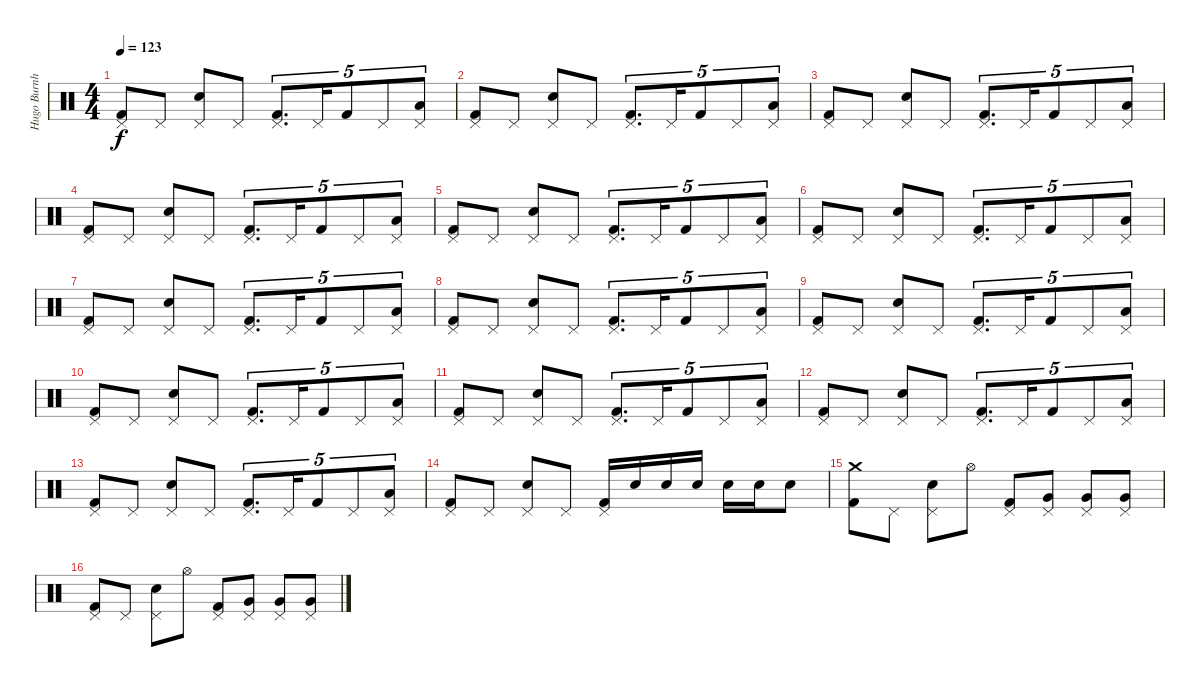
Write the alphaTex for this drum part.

\track ("Hugo Burnham" "Hugo Burnh") {instrument percussion}
\staff {score}
\articulation defaults
\ts (4 4)
\tempo 123
\clef neutral
\ks c
("Pedal Hi-Hat (hit)" "Kick (hit) 2").8{dy f} "Pedal Hi-Hat (hit)".8 ("Pedal Hi-Hat (hit)" "Electric Snare (hit)").8 "Pedal Hi-Hat (hit)".8 ("Pedal Hi-Hat (hit)" "Kick (hit) 2").8{d tu (5 4)} "Pedal Hi-Hat (hit)".16{tu (5 4)} "Kick (hit) 2".8{tu (5 4)} "Pedal Hi-Hat (hit)".8{tu (5 4)} ("Pedal Hi-Hat (hit)" "Low Floor Tom (hit)").8{tu (5 4)} |
("Pedal Hi-Hat (hit)" "Kick (hit) 2").8 "Pedal Hi-Hat (hit)".8 ("Pedal Hi-Hat (hit)" "Electric Snare (hit)").8 "Pedal Hi-Hat (hit)".8 ("Pedal Hi-Hat (hit)" "Kick (hit) 2").8{d tu (5 4)} "Pedal Hi-Hat (hit)".16{tu (5 4)} "Kick (hit) 2".8{tu (5 4)} "Pedal Hi-Hat (hit)".8{tu (5 4)} ("Pedal Hi-Hat (hit)" "Low Floor Tom (hit)").8{tu (5 4)} |
("Pedal Hi-Hat (hit)" "Kick (hit) 2").8 "Pedal Hi-Hat (hit)".8 ("Pedal Hi-Hat (hit)" "Electric Snare (hit)").8 "Pedal Hi-Hat (hit)".8 ("Pedal Hi-Hat (hit)" "Kick (hit) 2").8{d tu (5 4)} "Pedal Hi-Hat (hit)".16{tu (5 4)} "Kick (hit) 2".8{tu (5 4)} "Pedal Hi-Hat (hit)".8{tu (5 4)} ("Pedal Hi-Hat (hit)" "Low Floor Tom (hit)").8{tu (5 4)} |
("Pedal Hi-Hat (hit)" "Kick (hit) 2").8 "Pedal Hi-Hat (hit)".8 ("Pedal Hi-Hat (hit)" "Electric Snare (hit)").8 "Pedal Hi-Hat (hit)".8 ("Pedal Hi-Hat (hit)" "Kick (hit) 2").8{d tu (5 4)} "Pedal Hi-Hat (hit)".16{tu (5 4)} "Kick (hit) 2".8{tu (5 4)} "Pedal Hi-Hat (hit)".8{tu (5 4)} ("Pedal Hi-Hat (hit)" "Low Floor Tom (hit)").8{tu (5 4)} |
("Pedal Hi-Hat (hit)" "Kick (hit) 2").8 "Pedal Hi-Hat (hit)".8 ("Pedal Hi-Hat (hit)" "Electric Snare (hit)").8 "Pedal Hi-Hat (hit)".8 ("Pedal Hi-Hat (hit)" "Kick (hit) 2").8{d tu (5 4)} "Pedal Hi-Hat (hit)".16{tu (5 4)} "Kick (hit) 2".8{tu (5 4)} "Pedal Hi-Hat (hit)".8{tu (5 4)} ("Pedal Hi-Hat (hit)" "Low Floor Tom (hit)").8{tu (5 4)} |
("Pedal Hi-Hat (hit)" "Kick (hit) 2").8 "Pedal Hi-Hat (hit)".8 ("Pedal Hi-Hat (hit)" "Electric Snare (hit)").8 "Pedal Hi-Hat (hit)".8 ("Pedal Hi-Hat (hit)" "Kick (hit) 2").8{d tu (5 4)} "Pedal Hi-Hat (hit)".16{tu (5 4)} "Kick (hit) 2".8{tu (5 4)} "Pedal Hi-Hat (hit)".8{tu (5 4)} ("Pedal Hi-Hat (hit)" "Low Floor Tom (hit)").8{tu (5 4)} |
("Pedal Hi-Hat (hit)" "Kick (hit) 2").8 "Pedal Hi-Hat (hit)".8 ("Pedal Hi-Hat (hit)" "Electric Snare (hit)").8 "Pedal Hi-Hat (hit)".8 ("Pedal Hi-Hat (hit)" "Kick (hit) 2").8{d tu (5 4)} "Pedal Hi-Hat (hit)".16{tu (5 4)} "Kick (hit) 2".8{tu (5 4)} "Pedal Hi-Hat (hit)".8{tu (5 4)} ("Pedal Hi-Hat (hit)" "Low Floor Tom (hit)").8{tu (5 4)} |
("Pedal Hi-Hat (hit)" "Kick (hit) 2").8 "Pedal Hi-Hat (hit)".8 ("Pedal Hi-Hat (hit)" "Electric Snare (hit)").8 "Pedal Hi-Hat (hit)".8 ("Pedal Hi-Hat (hit)" "Kick (hit) 2").8{d tu (5 4)} "Pedal Hi-Hat (hit)".16{tu (5 4)} "Kick (hit) 2".8{tu (5 4)} "Pedal Hi-Hat (hit)".8{tu (5 4)} ("Pedal Hi-Hat (hit)" "Low Floor Tom (hit)").8{tu (5 4)} |
("Pedal Hi-Hat (hit)" "Kick (hit) 2").8 "Pedal Hi-Hat (hit)".8 ("Pedal Hi-Hat (hit)" "Electric Snare (hit)").8 "Pedal Hi-Hat (hit)".8 ("Pedal Hi-Hat (hit)" "Kick (hit) 2").8{d tu (5 4)} "Pedal Hi-Hat (hit)".16{tu (5 4)} "Kick (hit) 2".8{tu (5 4)} "Pedal Hi-Hat (hit)".8{tu (5 4)} ("Pedal Hi-Hat (hit)" "Low Floor Tom (hit)").8{tu (5 4)} |
("Pedal Hi-Hat (hit)" "Kick (hit) 2").8 "Pedal Hi-Hat (hit)".8 ("Pedal Hi-Hat (hit)" "Electric Snare (hit)").8 "Pedal Hi-Hat (hit)".8 ("Pedal Hi-Hat (hit)" "Kick (hit) 2").8{d tu (5 4)} "Pedal Hi-Hat (hit)".16{tu (5 4)} "Kick (hit) 2".8{tu (5 4)} "Pedal Hi-Hat (hit)".8{tu (5 4)} ("Pedal Hi-Hat (hit)" "Low Floor Tom (hit)").8{tu (5 4)} |
("Pedal Hi-Hat (hit)" "Kick (hit) 2").8 "Pedal Hi-Hat (hit)".8 ("Pedal Hi-Hat (hit)" "Electric Snare (hit)").8 "Pedal Hi-Hat (hit)".8 ("Pedal Hi-Hat (hit)" "Kick (hit) 2").8{d tu (5 4)} "Pedal Hi-Hat (hit)".16{tu (5 4)} "Kick (hit) 2".8{tu (5 4)} "Pedal Hi-Hat (hit)".8{tu (5 4)} ("Pedal Hi-Hat (hit)" "Low Floor Tom (hit)").8{tu (5 4)} |
("Pedal Hi-Hat (hit)" "Kick (hit) 2").8 "Pedal Hi-Hat (hit)".8 ("Pedal Hi-Hat (hit)" "Electric Snare (hit)").8 "Pedal Hi-Hat (hit)".8 ("Pedal Hi-Hat (hit)" "Kick (hit) 2").8{d tu (5 4)} "Pedal Hi-Hat (hit)".16{tu (5 4)} "Kick (hit) 2".8{tu (5 4)} "Pedal Hi-Hat (hit)".8{tu (5 4)} ("Pedal Hi-Hat (hit)" "Low Floor Tom (hit)").8{tu (5 4)} |
("Pedal Hi-Hat (hit)" "Kick (hit) 2").8 "Pedal Hi-Hat (hit)".8 ("Pedal Hi-Hat (hit)" "Electric Snare (hit)").8 "Pedal Hi-Hat (hit)".8 ("Pedal Hi-Hat (hit)" "Kick (hit) 2").8{d tu (5 4)} "Pedal Hi-Hat (hit)".16{tu (5 4)} "Kick (hit) 2".8{tu (5 4)} "Pedal Hi-Hat (hit)".8{tu (5 4)} ("Pedal Hi-Hat (hit)" "Low Floor Tom (hit)").8{tu (5 4)} |
("Pedal Hi-Hat (hit)" "Kick (hit) 2").8 "Pedal Hi-Hat (hit)".8 ("Pedal Hi-Hat (hit)" "Electric Snare (hit)").8 "Pedal Hi-Hat (hit)".8 ("Pedal Hi-Hat (hit)" "Kick (hit) 2").16 "Electric Snare (hit)".16 "Electric Snare (hit)".16 "Electric Snare (hit)".16 "Electric Snare (hit)".16 "Electric Snare (hit)".16 "Electric Snare (hit)".8 |
("Crash medium (hit)" "Kick (hit) 2").8 "Pedal Hi-Hat (hit)".8 ("Pedal Hi-Hat (hit)" "Electric Snare (hit)").8 "Hi-Hat (open)".8 ("Pedal Hi-Hat (hit)" "Kick (hit) 2").8 ("Pedal Hi-Hat (hit)" "Very Low Tom (hit)").8 ("Pedal Hi-Hat (hit)" "Very Low Tom (hit)").8 ("Pedal Hi-Hat (hit)" "Very Low Tom (hit)").8 |
("Pedal Hi-Hat (hit)" "Kick (hit) 2").8 "Pedal Hi-Hat (hit)".8 ("Pedal Hi-Hat (hit)" "Electric Snare (hit)").8 "Hi-Hat (open)".8 ("Pedal Hi-Hat (hit)" "Kick (hit) 2").8 ("Pedal Hi-Hat (hit)" "Very Low Tom (hit)").8 ("Pedal Hi-Hat (hit)" "Very Low Tom (hit)").8 ("Pedal Hi-Hat (hit)" "Very Low Tom (hit)").8
